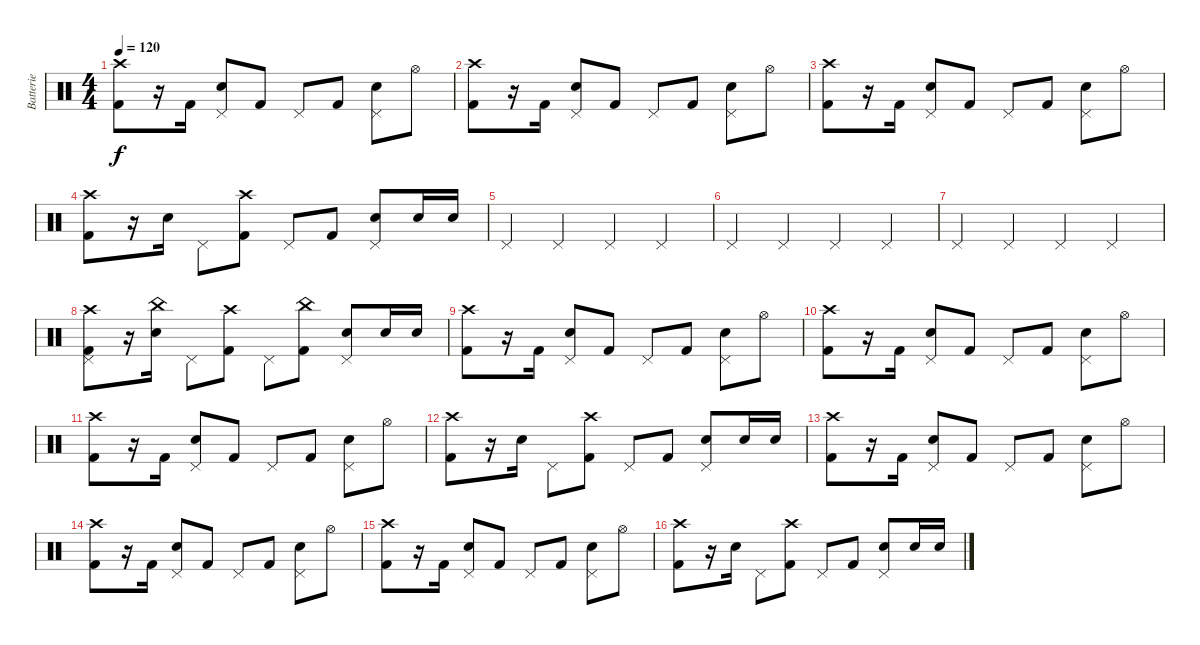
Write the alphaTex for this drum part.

\track ("Batterie" "Batterie") {instrument percussion}
\staff {score}
\articulation defaults
\ts (4 4)
\tempo 120
\clef neutral
\ks c
("Crash high (hit)" "Kick (hit) 2").8{dy f} r.16 "Kick (hit) 2".16 ("Snare (hit) 2" "Pedal Hi-Hat (hit)").8 "Kick (hit) 2".8 "Pedal Hi-Hat (hit)".8 "Kick (hit) 2".8 ("Snare (hit) 2" "Pedal Hi-Hat (hit)").8 "Hi-Hat (open)".8 |
("Crash high (hit)" "Kick (hit) 2").8 r.16 "Kick (hit) 2".16 ("Snare (hit) 2" "Pedal Hi-Hat (hit)").8 "Kick (hit) 2".8 "Pedal Hi-Hat (hit)".8 "Kick (hit) 2".8 ("Snare (hit) 2" "Pedal Hi-Hat (hit)").8 "Hi-Hat (open)".8 |
("Crash high (hit)" "Kick (hit) 2").8 r.16 "Kick (hit) 2".16 ("Snare (hit) 2" "Pedal Hi-Hat (hit)").8 "Kick (hit) 2".8 "Pedal Hi-Hat (hit)".8 "Kick (hit) 2".8 ("Snare (hit) 2" "Pedal Hi-Hat (hit)").8 "Hi-Hat (open)".8 |
("Crash high (hit)" "Kick (hit) 2").8 r.16 "Snare (hit) 2".16 "Pedal Hi-Hat (hit)".8 ("Crash high (hit)" "Kick (hit) 2").8 "Pedal Hi-Hat (hit)".8 "Kick (hit) 2".8 ("Snare (hit) 2" "Pedal Hi-Hat (hit)").8 "Snare (hit) 2".16 "Snare (hit) 2".16 |
"Pedal Hi-Hat (hit)".4 "Pedal Hi-Hat (hit)".4 "Pedal Hi-Hat (hit)".4 "Pedal Hi-Hat (hit)".4 |
"Pedal Hi-Hat (hit)".4 "Pedal Hi-Hat (hit)".4 "Pedal Hi-Hat (hit)".4 "Pedal Hi-Hat (hit)".4 |
"Pedal Hi-Hat (hit)".4 "Pedal Hi-Hat (hit)".4 "Pedal Hi-Hat (hit)".4 "Pedal Hi-Hat (hit)".4 |
("Crash high (hit)" "Kick (hit) 2" "Pedal Hi-Hat (hit)").8 r.16 ("China (hit)" "Snare (hit) 2").16 "Pedal Hi-Hat (hit)".8 ("Crash high (hit)" "Kick (hit) 2").8 "Pedal Hi-Hat (hit)".8 ("China (hit)" "Kick (hit) 2").8 ("Snare (hit) 2" "Pedal Hi-Hat (hit)").8 "Snare (hit) 2".16 "Snare (hit) 2".16 |
("Crash high (hit)" "Kick (hit) 2").8 r.16 "Kick (hit) 2".16 ("Snare (hit) 2" "Pedal Hi-Hat (hit)").8 "Kick (hit) 2".8 "Pedal Hi-Hat (hit)".8 "Kick (hit) 2".8 ("Snare (hit) 2" "Pedal Hi-Hat (hit)").8 "Hi-Hat (open)".8 |
("Crash high (hit)" "Kick (hit) 2").8 r.16 "Kick (hit) 2".16 ("Snare (hit) 2" "Pedal Hi-Hat (hit)").8 "Kick (hit) 2".8 "Pedal Hi-Hat (hit)".8 "Kick (hit) 2".8 ("Snare (hit) 2" "Pedal Hi-Hat (hit)").8 "Hi-Hat (open)".8 |
("Crash high (hit)" "Kick (hit) 2").8 r.16 "Kick (hit) 2".16 ("Snare (hit) 2" "Pedal Hi-Hat (hit)").8 "Kick (hit) 2".8 "Pedal Hi-Hat (hit)".8 "Kick (hit) 2".8 ("Snare (hit) 2" "Pedal Hi-Hat (hit)").8 "Hi-Hat (open)".8 |
("Crash high (hit)" "Kick (hit) 2").8 r.16 "Snare (hit) 2".16 "Pedal Hi-Hat (hit)".8 ("Crash high (hit)" "Kick (hit) 2").8 "Pedal Hi-Hat (hit)".8 "Kick (hit) 2".8 ("Snare (hit) 2" "Pedal Hi-Hat (hit)").8 "Snare (hit) 2".16 "Snare (hit) 2".16 |
("Crash high (hit)" "Kick (hit) 2").8 r.16 "Kick (hit) 2".16 ("Snare (hit) 2" "Pedal Hi-Hat (hit)").8 "Kick (hit) 2".8 "Pedal Hi-Hat (hit)".8 "Kick (hit) 2".8 ("Snare (hit) 2" "Pedal Hi-Hat (hit)").8 "Hi-Hat (open)".8 |
("Crash high (hit)" "Kick (hit) 2").8 r.16 "Kick (hit) 2".16 ("Snare (hit) 2" "Pedal Hi-Hat (hit)").8 "Kick (hit) 2".8 "Pedal Hi-Hat (hit)".8 "Kick (hit) 2".8 ("Snare (hit) 2" "Pedal Hi-Hat (hit)").8 "Hi-Hat (open)".8 |
("Crash high (hit)" "Kick (hit) 2").8 r.16 "Kick (hit) 2".16 ("Snare (hit) 2" "Pedal Hi-Hat (hit)").8 "Kick (hit) 2".8 "Pedal Hi-Hat (hit)".8 "Kick (hit) 2".8 ("Snare (hit) 2" "Pedal Hi-Hat (hit)").8 "Hi-Hat (open)".8 |
("Crash high (hit)" "Kick (hit) 2").8 r.16 "Snare (hit) 2".16 "Pedal Hi-Hat (hit)".8 ("Crash high (hit)" "Kick (hit) 2").8 "Pedal Hi-Hat (hit)".8 "Kick (hit) 2".8 ("Snare (hit) 2" "Pedal Hi-Hat (hit)").8 "Snare (hit) 2".16 "Snare (hit) 2".16
